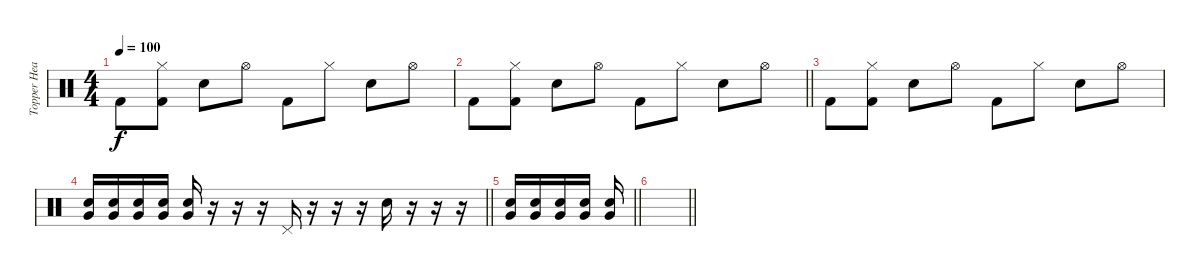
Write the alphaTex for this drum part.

\track ("Topper Headon" "Topper Hea") {instrument percussion}
\staff {score}
\articulation defaults
\ts (4 4)
\tempo 100
\clef neutral
\ks c "Kick (hit) 2".8{dy f}
("Hi-Hat (closed)" "Kick (hit) 2").8 "Snare (hit) 2".8 "Hi-Hat (open)".8 "Kick (hit) 2".8 "Hi-Hat (closed)".8 "Snare (hit) 2".8 "Hi-Hat (open)".8 |
\barLineRight lightlight "Kick (hit) 2".8
("Hi-Hat (closed)" "Kick (hit) 2").8 "Snare (hit) 2".8 "Hi-Hat (open)".8 "Kick (hit) 2".8 "Hi-Hat (closed)".8 "Snare (hit) 2".8 "Hi-Hat (open)".8 |
"Kick (hit) 2".8 ("Hi-Hat (closed)" "Kick (hit) 2").8 "Snare (hit) 2".8 "Hi-Hat (open)".8 "Kick (hit) 2".8 "Hi-Hat (closed)".8 "Snare (hit) 2".8 "Hi-Hat (open)".8 |
\barLineRight lightlight
("Snare (hit) 2" "Very Low Tom (hit)").16 ("Snare (hit) 2" "Very Low Tom (hit)").16 ("Snare (hit) 2" "Very Low Tom (hit)").16 ("Snare (hit) 2" "Very Low Tom (hit)").16 ("Snare (hit) 2" "Very Low Tom (hit)").16 r.16 r.16 r.16 "Pedal Hi-Hat (hit)".16 r.16 r.16 r.16 "Electric Snare (hit)".16 r.16 r.16 r.16 |
\barLineRight lightlight
("Snare (hit) 2" "Very Low Tom (hit)").16 ("Snare (hit) 2" "Very Low Tom (hit)").16 ("Snare (hit) 2" "Very Low Tom (hit)").16 ("Snare (hit) 2" "Very Low Tom (hit)").16 ("Snare (hit) 2" "Very Low Tom (hit)").16 |
\barLineRight lightlight
